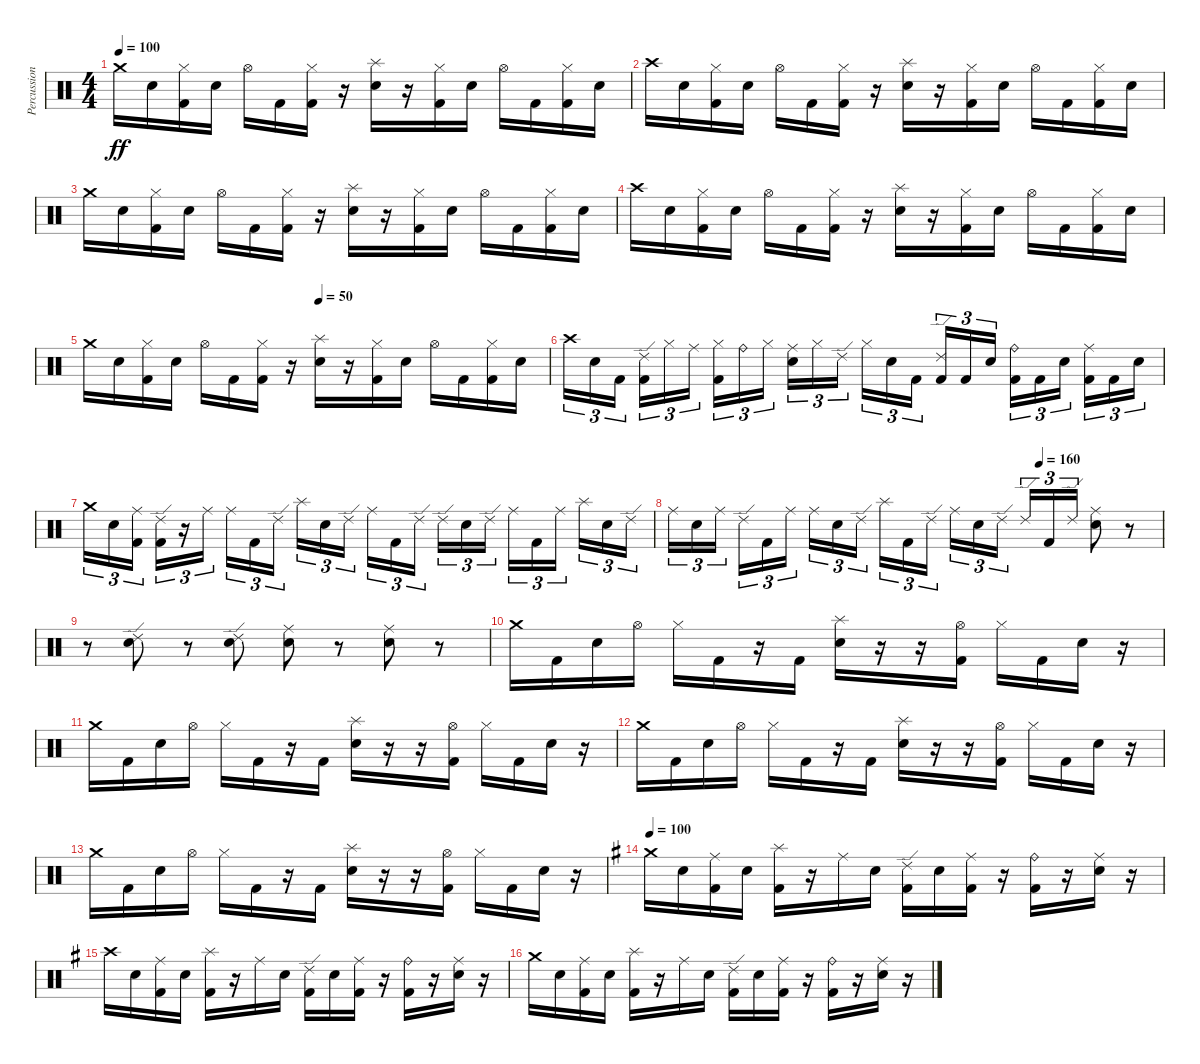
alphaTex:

\track ("Percussion" "Percussion") {instrument percussion}
\staff {score}
\articulation defaults
\ts (4 4)
\tempo 100
\clef neutral
\ks c "Crash medium (hit)".16{dy ff} "Electric Snare (hit)".16
("Hi-Hat (closed)" "Kick (hit) 2").16 "Electric Snare (hit)".16 "Hi-Hat (open)".16 "Kick (hit) 2".16 ("Hi-Hat (closed)" "Kick (hit) 2").16 r.16 ("Splash (hit)" "Electric Snare (hit)").16 r.16 ("Hi-Hat (closed)" "Kick (hit) 2").16 "Electric Snare (hit)".16 "Hi-Hat (open)".16 "Kick (hit) 2".16 ("Hi-Hat (closed)" "Kick (hit) 2").16 "Electric Snare (hit)".16 |
"Crash high (hit)".16 "Electric Snare (hit)".16 ("Hi-Hat (closed)" "Kick (hit) 2").16 "Electric Snare (hit)".16 "Hi-Hat (open)".16 "Kick (hit) 2".16 ("Hi-Hat (closed)" "Kick (hit) 2").16 r.16 ("Splash (hit)" "Electric Snare (hit)").16 r.16 ("Hi-Hat (closed)" "Kick (hit) 2").16 "Electric Snare (hit)".16 "Hi-Hat (open)".16 "Kick (hit) 2".16 ("Hi-Hat (closed)" "Kick (hit) 2").16 "Electric Snare (hit)".16 |
"Crash medium (hit)".16 "Electric Snare (hit)".16 ("Hi-Hat (closed)" "Kick (hit) 2").16 "Electric Snare (hit)".16 "Hi-Hat (open)".16 "Kick (hit) 2".16 ("Hi-Hat (closed)" "Kick (hit) 2").16 r.16 ("Splash (hit)" "Electric Snare (hit)").16 r.16 ("Hi-Hat (closed)" "Kick (hit) 2").16 "Electric Snare (hit)".16 "Hi-Hat (open)".16 "Kick (hit) 2".16 ("Hi-Hat (closed)" "Kick (hit) 2").16 "Electric Snare (hit)".16 |
"Crash high (hit)".16 "Electric Snare (hit)".16 ("Hi-Hat (closed)" "Kick (hit) 2").16 "Electric Snare (hit)".16 "Hi-Hat (open)".16 "Kick (hit) 2".16 ("Hi-Hat (closed)" "Kick (hit) 2").16 r.16 ("Splash (hit)" "Electric Snare (hit)").16 r.16 ("Hi-Hat (closed)" "Kick (hit) 2").16 "Electric Snare (hit)".16 "Hi-Hat (open)".16 "Kick (hit) 2".16 ("Hi-Hat (closed)" "Kick (hit) 2").16 "Electric Snare (hit)".16 |
\tempo (50 0.5)
"Crash medium (hit)".16 "Electric Snare (hit)".16 ("Hi-Hat (closed)" "Kick (hit) 2").16 "Electric Snare (hit)".16 "Hi-Hat (open)".16 "Kick (hit) 2".16 ("Hi-Hat (closed)" "Kick (hit) 2").16 r.16 ("Splash (hit)" "Electric Snare (hit)").16 r.16 ("Hi-Hat (closed)" "Kick (hit) 2").16 "Electric Snare (hit)".16 "Hi-Hat (open)".16 "Kick (hit) 2".16 ("Hi-Hat (closed)" "Kick (hit) 2").16 "Electric Snare (hit)".16 |
"Crash high (hit)".16{tu (3 2)} "Electric Snare (hit)".16{tu (3 2)} "Kick (hit) 2".16{tu (3 2) beam splitsecondary} ("Ride (edge) 2" "Kick (hit) 2").16{tu (3 2)} "Hi-Hat (closed)".16{tu (3 2)} "Ride (middle)".16{tu (3 2)} ("Hi-Hat (closed)" "Kick (hit) 2").16{tu (3 2)} "Ride (bell)".16{tu (3 2)} "Hi-Hat (closed)".16{tu (3 2) beam splitsecondary} ("Ride (middle)" "Electric Snare (hit)").16{tu (3 2)} "Hi-Hat (closed)".16{tu (3 2)} "Ride (edge) 2".16{tu (3 2)} "Hi-Hat (closed)".16{tu (3 2)} "Electric Snare (hit)".16{tu (3 2)} "Kick (hit) 2".16{tu (3 2) beam splitsecondary} ("Ride (edge) 2" "Kick (hit) 2").16{tu (3 2)} "Kick (hit) 2".16{tu (3 2)} "Electric Snare (hit)".16{tu (3 2)} ("Ride (bell)" "Kick (hit) 2").16{tu (3 2)} "Kick (hit) 2".16{tu (3 2)} "Electric Snare (hit)".16{tu (3 2) beam splitsecondary} ("Ride (middle)" "Kick (hit) 2").16{tu (3 2)} "Kick (hit) 2".16{tu (3 2)} "Electric Snare (hit)".16{tu (3 2)} |
"Crash medium (hit)".16{tu (3 2)} "Electric Snare (hit)".16{tu (3 2)} ("Ride (middle)" "Kick (hit) 2").16{tu (3 2) beam splitsecondary} ("Ride (edge) 2" "Kick (hit) 2").16{tu (3 2)} r.16{tu (3 2)} "Ride (middle)".16{tu (3 2)} "Ride (middle)".16{tu (3 2)} "Kick (hit) 2".16{tu (3 2)} "Ride (edge) 2".16{tu (3 2) beam splitsecondary} "Splash (hit)".16{tu (3 2)} "Electric Snare (hit)".16{tu (3 2)} "Ride (edge) 2".16{tu (3 2)} "Ride (middle)".16{tu (3 2)} "Kick (hit) 2".16{tu (3 2)} "Ride (edge) 2".16{tu (3 2) beam splitsecondary} "Ride (edge) 2".16{tu (3 2)} "Electric Snare (hit)".16{tu (3 2)} "Ride (edge) 2".16{tu (3 2)} "Ride (middle)".16{tu (3 2)} "Kick (hit) 2".16{tu (3 2)} "Ride (middle)".16{tu (3 2) beam splitsecondary} "Splash (hit)".16{tu (3 2)} "Electric Snare (hit)".16{tu (3 2)} "Ride (edge) 2".16{tu (3 2)} |
\tempo (160 0.75)
"Ride (middle)".16{tu (3 2)} "Electric Snare (hit)".16{tu (3 2)} "Ride (middle)".16{tu (3 2) beam splitsecondary} "Ride (edge) 2".16{tu (3 2)} "Kick (hit) 2".16{tu (3 2)} "Ride (middle)".16{tu (3 2)} "Ride (middle)".16{tu (3 2)} "Electric Snare (hit)".16{tu (3 2)} "Ride (edge) 2".16{tu (3 2) beam splitsecondary} "Splash (hit)".16{tu (3 2)} "Kick (hit) 2".16{tu (3 2)} "Ride (edge) 2".16{tu (3 2)} "Ride (middle)".16{tu (3 2)} "Electric Snare (hit)".16{tu (3 2)} "Ride (edge) 2".16{tu (3 2) beam splitsecondary} "Ride (edge) 2".16{tu (3 2)} "Kick (hit) 2".16{tu (3 2)} "Ride (edge) 2".16{tu (3 2)} ("Ride (middle)" "Electric Snare (hit)").8 r.8 |
r.8 ("Ride (edge) 2" "Electric Snare (hit)").8 r.8 ("Ride (edge) 2" "Electric Snare (hit)").8 ("Ride (middle)" "Electric Snare (hit)").8 r.8 ("Ride (middle)" "Electric Snare (hit)").8 r.8 |
"Crash medium (hit)".16 "Kick (hit) 2".16 "Electric Snare (hit)".16 "Hi-Hat (open)".16 "Hi-Hat (closed)".16 "Kick (hit) 2".16 r.16 "Kick (hit) 2".16 ("Splash (hit)" "Electric Snare (hit)").16 r.16 r.16 ("Hi-Hat (open)" "Kick (hit) 2").16 "Hi-Hat (closed)".16 "Kick (hit) 2".16 "Electric Snare (hit)".16 r.16 |
"Crash medium (hit)".16 "Kick (hit) 2".16 "Electric Snare (hit)".16 "Hi-Hat (open)".16 "Hi-Hat (closed)".16 "Kick (hit) 2".16 r.16 "Kick (hit) 2".16 ("Splash (hit)" "Electric Snare (hit)").16 r.16 r.16 ("Hi-Hat (open)" "Kick (hit) 2").16 "Hi-Hat (closed)".16 "Kick (hit) 2".16 "Electric Snare (hit)".16 r.16 |
"Crash medium (hit)".16 "Kick (hit) 2".16 "Electric Snare (hit)".16 "Hi-Hat (open)".16 "Hi-Hat (closed)".16 "Kick (hit) 2".16 r.16 "Kick (hit) 2".16 ("Splash (hit)" "Electric Snare (hit)").16 r.16 r.16 ("Hi-Hat (open)" "Kick (hit) 2").16 "Hi-Hat (closed)".16 "Kick (hit) 2".16 "Electric Snare (hit)".16 r.16 |
"Crash medium (hit)".16 "Kick (hit) 2".16 "Electric Snare (hit)".16 "Hi-Hat (open)".16 "Hi-Hat (closed)".16 "Kick (hit) 2".16 r.16 "Kick (hit) 2".16 ("Splash (hit)" "Electric Snare (hit)").16 r.16 r.16 ("Hi-Hat (open)" "Kick (hit) 2").16 "Hi-Hat (closed)".16 "Kick (hit) 2".16 "Electric Snare (hit)".16 r.16 |
\tempo 100
\ks g "Crash medium (hit)".16 "Electric Snare (hit)".16
("Ride (middle)" "Kick (hit) 2").16 "Electric Snare (hit)".16 ("Splash (hit)" "Kick (hit) 2").16 r.16 "Ride (middle)".16 "Electric Snare (hit)".16 ("Ride (edge) 2" "Kick (hit) 2").16 "Electric Snare (hit)".16 ("Ride (middle)" "Kick (hit) 2").16 r.16 ("Ride (bell)" "Kick (hit) 2").16 r.16 ("Ride (middle)" "Electric Snare (hit)").16 r.16 |
"Crash high (hit)".16 "Electric Snare (hit)".16 ("Ride (middle)" "Kick (hit) 2").16 "Electric Snare (hit)".16 ("Splash (hit)" "Kick (hit) 2").16 r.16 "Ride (middle)".16 "Electric Snare (hit)".16 ("Ride (edge) 2" "Kick (hit) 2").16 "Electric Snare (hit)".16 ("Ride (middle)" "Kick (hit) 2").16 r.16 ("Ride (bell)" "Kick (hit) 2").16 r.16 ("Ride (middle)" "Electric Snare (hit)").16 r.16 |
"Crash medium (hit)".16 "Electric Snare (hit)".16 ("Ride (middle)" "Kick (hit) 2").16 "Electric Snare (hit)".16 ("Splash (hit)" "Kick (hit) 2").16 r.16 "Ride (middle)".16 "Electric Snare (hit)".16 ("Ride (edge) 2" "Kick (hit) 2").16 "Electric Snare (hit)".16 ("Ride (middle)" "Kick (hit) 2").16 r.16 ("Ride (bell)" "Kick (hit) 2").16 r.16 ("Ride (middle)" "Electric Snare (hit)").16 r.16
